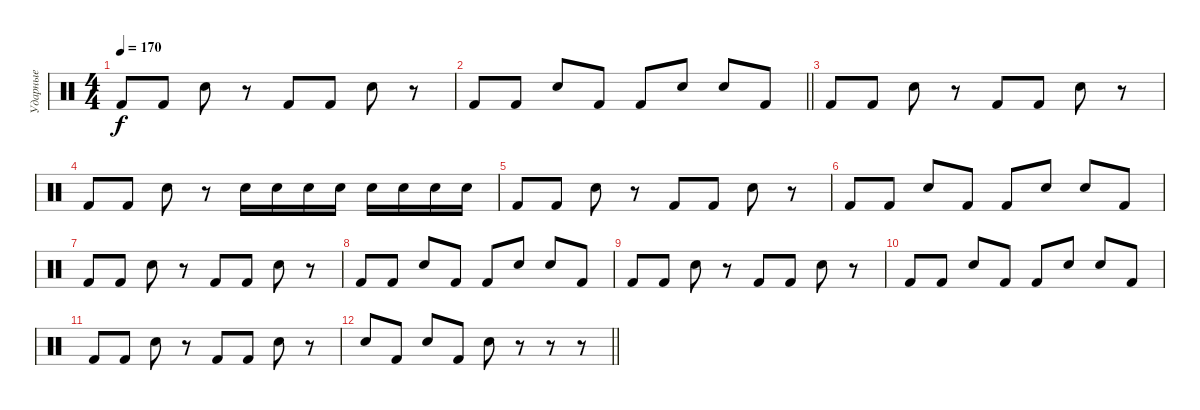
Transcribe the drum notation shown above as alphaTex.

\track ("Ударные" "Ударные") {instrument percussion}
\staff {score}
\articulation defaults
\ts (4 4)
\tempo 170
\clef neutral
\ks c "Kick (hit) 2".8{dy f} "Kick (hit) 2".8 "Snare (hit) 2".8
r.8 "Kick (hit) 2".8 "Kick (hit) 2".8 "Snare (hit) 2".8 r.8 |
\barLineRight lightlight "Kick (hit) 2".8 "Kick (hit) 2".8 "Snare (hit) 2".8 "Kick (hit) 2".8 "Kick (hit) 2".8 "Snare (hit) 2".8 "Snare (hit) 2".8 "Kick (hit) 2".8
|
"Kick (hit) 2".8 "Kick (hit) 2".8 "Snare (hit) 2".8 r.8 "Kick (hit) 2".8 "Kick (hit) 2".8 "Snare (hit) 2".8 r.8 |
"Kick (hit) 2".8 "Kick (hit) 2".8 "Snare (hit) 2".8 r.8 "Snare (hit) 2".16 "Snare (hit) 2".16 "Snare (hit) 2".16 "Snare (hit) 2".16 "Snare (hit) 2".16 "Snare (hit) 2".16 "Snare (hit) 2".16 "Snare (hit) 2".16 |
"Kick (hit) 2".8 "Kick (hit) 2".8 "Snare (hit) 2".8 r.8 "Kick (hit) 2".8 "Kick (hit) 2".8 "Snare (hit) 2".8 r.8 |
"Kick (hit) 2".8 "Kick (hit) 2".8 "Snare (hit) 2".8 "Kick (hit) 2".8 "Kick (hit) 2".8 "Snare (hit) 2".8 "Snare (hit) 2".8 "Kick (hit) 2".8 |
"Kick (hit) 2".8 "Kick (hit) 2".8 "Snare (hit) 2".8 r.8 "Kick (hit) 2".8 "Kick (hit) 2".8 "Snare (hit) 2".8 r.8 |
"Kick (hit) 2".8 "Kick (hit) 2".8 "Snare (hit) 2".8 "Kick (hit) 2".8 "Kick (hit) 2".8 "Snare (hit) 2".8 "Snare (hit) 2".8 "Kick (hit) 2".8 |
"Kick (hit) 2".8 "Kick (hit) 2".8 "Snare (hit) 2".8 r.8 "Kick (hit) 2".8 "Kick (hit) 2".8 "Snare (hit) 2".8 r.8 |
"Kick (hit) 2".8 "Kick (hit) 2".8 "Snare (hit) 2".8 "Kick (hit) 2".8 "Kick (hit) 2".8 "Snare (hit) 2".8 "Snare (hit) 2".8 "Kick (hit) 2".8 |
"Kick (hit) 2".8 "Kick (hit) 2".8 "Snare (hit) 2".8 r.8 "Kick (hit) 2".8 "Kick (hit) 2".8 "Snare (hit) 2".8 r.8 |
\barLineRight lightlight "Snare (hit) 2".8 "Kick (hit) 2".8 "Snare (hit) 2".8 "Kick (hit) 2".8 "Snare (hit) 2".8
r.8 r.8 r.8
